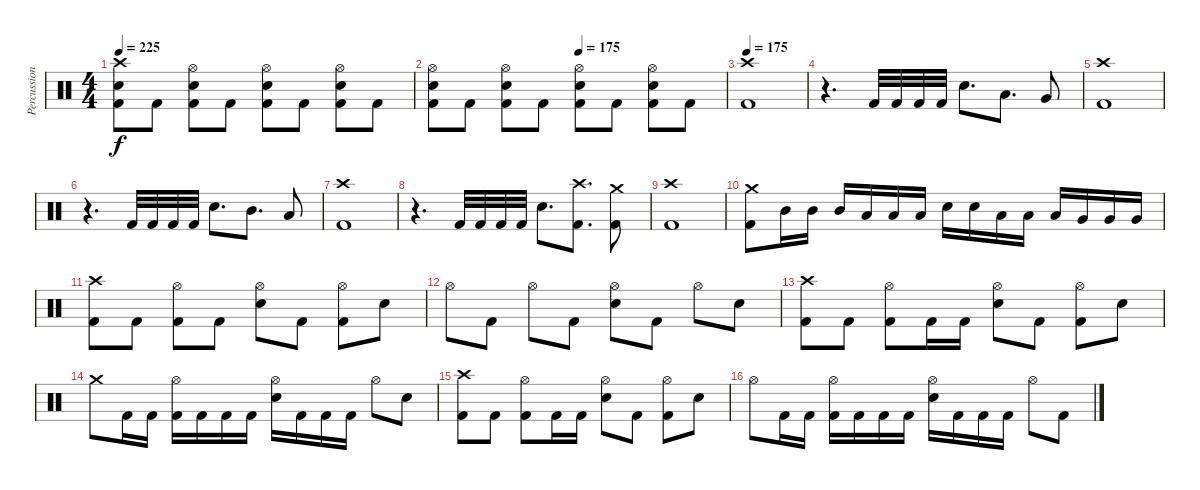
\track ("Percussion" "Percussion") {instrument percussion}
\staff {score}
\articulation defaults
\ts (4 4)
\tempo 225
\clef neutral
\ks c
("Crash high (hit)" "Electric Snare (hit)" "Kick (hit) 2").8{dy f} "Kick (hit) 2".8 ("Hi-Hat (open)" "Electric Snare (hit)" "Kick (hit) 2").8 "Kick (hit) 2".8 ("Hi-Hat (open)" "Electric Snare (hit)" "Kick (hit) 2").8 "Kick (hit) 2".8 ("Hi-Hat (open)" "Electric Snare (hit)" "Kick (hit) 2").8 "Kick (hit) 2".8 |
\tempo (175 0.5)
("Hi-Hat (open)" "Electric Snare (hit)" "Kick (hit) 2").8 "Kick (hit) 2".8 ("Hi-Hat (open)" "Electric Snare (hit)" "Kick (hit) 2").8 "Kick (hit) 2".8 ("Hi-Hat (open)" "Electric Snare (hit)" "Kick (hit) 2").8 "Kick (hit) 2".8 ("Hi-Hat (open)" "Electric Snare (hit)" "Kick (hit) 2").8 "Kick (hit) 2".8 |
\tempo 175
("Crash high (hit)" "Kick (hit) 2").1 |
r.4{d} "Kick (hit) 2".32 "Kick (hit) 2".32 "Kick (hit) 2".32 "Kick (hit) 2".32 "Electric Snare (hit)".8{d} "Low Tom (hit)".8{d} "Very Low Tom (hit)".8 |
("Crash high (hit)" "Kick (hit) 2").1 |
r.4{d} "Kick (hit) 2".32 "Kick (hit) 2".32 "Kick (hit) 2".32 "Kick (hit) 2".32 "Electric Snare (hit)".8{d} "Mid Tom (hit)".8{d} "Low Tom (hit)".8 |
("Crash high (hit)" "Kick (hit) 2").1 |
r.4{d} "Kick (hit) 2".32 "Kick (hit) 2".32 "Kick (hit) 2".32 "Kick (hit) 2".32 "Electric Snare (hit)".8{d} ("Crash high (hit)" "Kick (hit) 2").8{d} ("Crash medium (hit)" "Kick (hit) 2").8 |
("Crash high (hit)" "Kick (hit) 2").1 |
("Crash medium (hit)" "Kick (hit) 2").8 "Mid Tom (hit)".16 "Mid Tom (hit)".16 "Mid Tom (hit)".16 "Low Tom (hit)".16 "Low Tom (hit)".16 "Low Tom (hit)".16 "Electric Snare (hit)".16 "Electric Snare (hit)".16 "Low Tom (hit)".16 "Low Tom (hit)".16 "Low Tom (hit)".16 "Very Low Tom (hit)".16 "Very Low Tom (hit)".16 "Very Low Tom (hit)".16 |
("Crash high (hit)" "Kick (hit) 2").8 "Kick (hit) 2".8 ("Hi-Hat (open)" "Kick (hit) 2").8 "Kick (hit) 2".8 ("Hi-Hat (open)" "Electric Snare (hit)").8 "Kick (hit) 2".8 ("Hi-Hat (open)" "Kick (hit) 2").8 "Electric Snare (hit)".8 |
"Hi-Hat (open)".8 "Kick (hit) 2".8 "Hi-Hat (open)".8 "Kick (hit) 2".8 ("Hi-Hat (open)" "Electric Snare (hit)").8 "Kick (hit) 2".8 "Hi-Hat (open)".8 "Electric Snare (hit)".8 |
("Crash high (hit)" "Kick (hit) 2").8 "Kick (hit) 2".8 ("Hi-Hat (open)" "Kick (hit) 2").8 "Kick (hit) 2".16 "Kick (hit) 2".16 ("Hi-Hat (open)" "Electric Snare (hit)").8 "Kick (hit) 2".8 ("Hi-Hat (open)" "Kick (hit) 2").8 "Electric Snare (hit)".8 |
"Crash medium (hit)".8 "Kick (hit) 2".16 "Kick (hit) 2".16 ("Hi-Hat (open)" "Kick (hit) 2").16 "Kick (hit) 2".16 "Kick (hit) 2".16 "Kick (hit) 2".16 ("Hi-Hat (open)" "Electric Snare (hit)").16 "Kick (hit) 2".16 "Kick (hit) 2".16 "Kick (hit) 2".16 "Hi-Hat (open)".8 "Electric Snare (hit)".8 |
("Crash high (hit)" "Kick (hit) 2").8 "Kick (hit) 2".8 ("Hi-Hat (open)" "Kick (hit) 2").8 "Kick (hit) 2".16 "Kick (hit) 2".16 ("Hi-Hat (open)" "Electric Snare (hit)").8 "Kick (hit) 2".8 ("Hi-Hat (open)" "Kick (hit) 2").8 "Electric Snare (hit)".8 |
"Hi-Hat (open)".8 "Kick (hit) 2".16 "Kick (hit) 2".16 ("Hi-Hat (open)" "Kick (hit) 2").16 "Kick (hit) 2".16 "Kick (hit) 2".16 "Kick (hit) 2".16 ("Hi-Hat (open)" "Electric Snare (hit)").16 "Kick (hit) 2".16 "Kick (hit) 2".16 "Kick (hit) 2".16 "Hi-Hat (open)".8 "Kick (hit) 2".8
